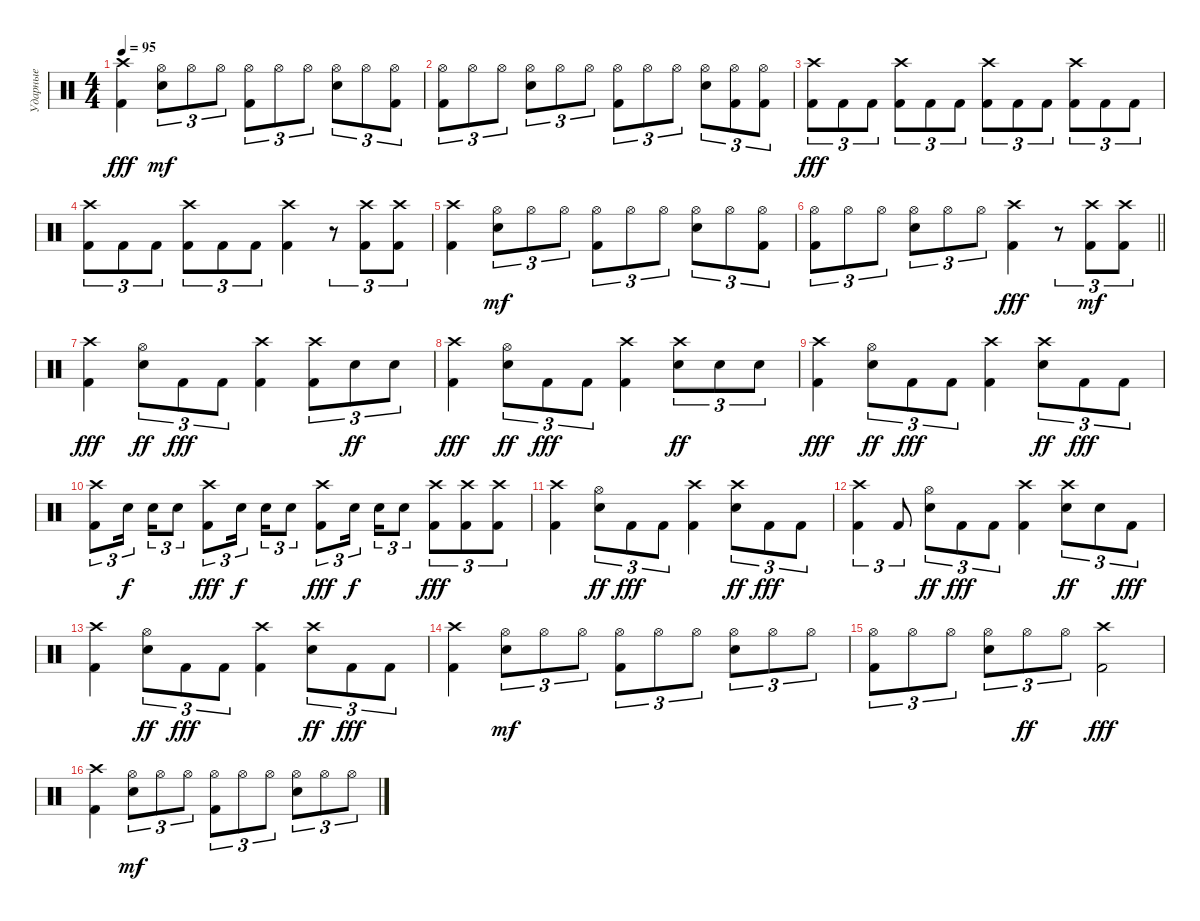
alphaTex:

\track ("Ударные" "Ударные") {instrument percussion}
\staff
\articulation defaults
\ts (4 4)
\tempo 95
\clef neutral
\ks c
("Kick (hit) 2" "Crash high (hit)").4{dy fff} ("Snare (hit) 2" "Hi-Hat (open)").8{tu (3 2) dy mf} "Hi-Hat (open)".8{tu (3 2)} "Hi-Hat (open)".8{tu (3 2)} ("Kick (hit) 2" "Hi-Hat (open)").8{tu (3 2)} "Hi-Hat (open)".8{tu (3 2)} "Hi-Hat (open)".8{tu (3 2)} ("Snare (hit) 2" "Hi-Hat (open)").8{tu (3 2)} "Hi-Hat (open)".8{tu (3 2)} ("Kick (hit) 2" "Hi-Hat (open)").8{tu (3 2)} |
("Kick (hit) 2" "Hi-Hat (open)").8{tu (3 2)} "Hi-Hat (open)".8{tu (3 2)} "Hi-Hat (open)".8{tu (3 2)} ("Snare (hit) 2" "Hi-Hat (open)").8{tu (3 2)} "Hi-Hat (open)".8{tu (3 2)} "Hi-Hat (open)".8{tu (3 2)} ("Kick (hit) 2" "Hi-Hat (open)").8{tu (3 2)} "Hi-Hat (open)".8{tu (3 2)} "Hi-Hat (open)".8{tu (3 2)} ("Snare (hit) 2" "Hi-Hat (open)").8{tu (3 2)} ("Kick (hit) 2" "Hi-Hat (open)").8{tu (3 2)} ("Kick (hit) 2" "Hi-Hat (open)").8{tu (3 2)} |
("Kick (hit) 2" "Crash high (hit)").8{tu (3 2) dy fff} "Kick (hit) 2".8{tu (3 2)} "Kick (hit) 2".8{tu (3 2)} ("Kick (hit) 2" "Crash high (hit)").8{tu (3 2)} "Kick (hit) 2".8{tu (3 2)} "Kick (hit) 2".8{tu (3 2)} ("Kick (hit) 2" "Crash high (hit)").8{tu (3 2)} "Kick (hit) 2".8{tu (3 2)} "Kick (hit) 2".8{tu (3 2)} ("Kick (hit) 2" "Crash high (hit)").8{tu (3 2)} "Kick (hit) 2".8{tu (3 2)} "Kick (hit) 2".8{tu (3 2)} |
("Kick (hit) 2" "Crash high (hit)").8{tu (3 2)} "Kick (hit) 2".8{tu (3 2)} "Kick (hit) 2".8{tu (3 2)} ("Kick (hit) 2" "Crash high (hit)").8{tu (3 2)} "Kick (hit) 2".8{tu (3 2)} "Kick (hit) 2".8{tu (3 2)} ("Kick (hit) 2" "Crash high (hit)").4 r.8{tu (3 2)} ("Kick (hit) 2" "Crash high (hit)").8{tu (3 2)} ("Kick (hit) 2" "Crash high (hit)").8{tu (3 2)} |
("Kick (hit) 2" "Crash high (hit)").4 ("Snare (hit) 2" "Hi-Hat (open)").8{tu (3 2) dy mf} "Hi-Hat (open)".8{tu (3 2)} "Hi-Hat (open)".8{tu (3 2)} ("Kick (hit) 2" "Hi-Hat (open)").8{tu (3 2)} "Hi-Hat (open)".8{tu (3 2)} "Hi-Hat (open)".8{tu (3 2)} ("Snare (hit) 2" "Hi-Hat (open)").8{tu (3 2)} "Hi-Hat (open)".8{tu (3 2)} ("Kick (hit) 2" "Hi-Hat (open)").8{tu (3 2)} |
\barLineRight lightlight
("Kick (hit) 2" "Hi-Hat (open)").8{tu (3 2)} "Hi-Hat (open)".8{tu (3 2)} "Hi-Hat (open)".8{tu (3 2)} ("Snare (hit) 2" "Hi-Hat (open)").8{tu (3 2)} "Hi-Hat (open)".8{tu (3 2)} "Hi-Hat (open)".8{tu (3 2)} ("Kick (hit) 2" "Crash high (hit)").4{dy fff} r.8{tu (3 2)} ("Kick (hit) 2" "Crash high (hit)").8{tu (3 2) dy mf} ("Kick (hit) 2" "Crash high (hit)").8{tu (3 2)} |
("Kick (hit) 2" "Crash high (hit)").4{dy fff} ("Snare (hit) 2" "Hi-Hat (open)").8{tu (3 2) dy ff} "Kick (hit) 2".8{tu (3 2) dy fff} "Kick (hit) 2".8{tu (3 2)} ("Kick (hit) 2" "Crash high (hit)").4 ("Kick (hit) 2" "Crash high (hit)").8{tu (3 2)} "Electric Snare (hit)".8{tu (3 2) dy ff} "Electric Snare (hit)".8{tu (3 2)} |
("Kick (hit) 2" "Crash high (hit)").4{dy fff} ("Snare (hit) 2" "Hi-Hat (open)").8{tu (3 2) dy ff} "Kick (hit) 2".8{tu (3 2) dy fff} "Kick (hit) 2".8{tu (3 2)} ("Kick (hit) 2" "Crash high (hit)").4 ("Snare (hit) 2" "Crash high (hit)").8{tu (3 2) dy ff} "Electric Snare (hit)".8{tu (3 2)} "Electric Snare (hit)".8{tu (3 2)} |
("Kick (hit) 2" "Crash high (hit)").4{dy fff} ("Snare (hit) 2" "Hi-Hat (open)").8{tu (3 2) dy ff} "Kick (hit) 2".8{tu (3 2) dy fff} "Kick (hit) 2".8{tu (3 2)} ("Kick (hit) 2" "Crash high (hit)").4 ("Snare (hit) 2" "Crash high (hit)").8{tu (3 2) dy ff} "Kick (hit) 2".8{tu (3 2) dy fff} "Kick (hit) 2".8{tu (3 2)} |
("Kick (hit) 2" "Crash high (hit)").8{tu (3 2)} "Snare (hit) 2".16{tu (3 2) dy f beam splitsecondary} "Snare (hit) 2".16{tu (3 2)} "Snare (hit) 2".8{tu (3 2)} ("Kick (hit) 2" "Crash high (hit)").8{tu (3 2) dy fff} "Snare (hit) 2".16{tu (3 2) dy f beam splitsecondary} "Snare (hit) 2".16{tu (3 2)} "Snare (hit) 2".8{tu (3 2)} ("Kick (hit) 2" "Crash high (hit)").8{tu (3 2) dy fff} "Snare (hit) 2".16{tu (3 2) dy f beam splitsecondary} "Snare (hit) 2".16{tu (3 2)} "Snare (hit) 2".8{tu (3 2)} ("Kick (hit) 2" "Crash high (hit)").8{tu (3 2) dy fff} ("Kick (hit) 2" "Crash high (hit)").8{tu (3 2)} ("Kick (hit) 2" "Crash high (hit)").8{tu (3 2)} |
("Kick (hit) 2" "Crash high (hit)").4 ("Snare (hit) 2" "Hi-Hat (open)").8{tu (3 2) dy ff} "Kick (hit) 2".8{tu (3 2) dy fff} "Kick (hit) 2".8{tu (3 2)} ("Kick (hit) 2" "Crash high (hit)").4 ("Snare (hit) 2" "Crash high (hit)").8{tu (3 2) dy ff} "Kick (hit) 2".8{tu (3 2) dy fff} "Kick (hit) 2".8{tu (3 2)} |
("Kick (hit) 2" "Crash high (hit)").4{tu (3 2)} "Kick (hit) 2".8{tu (3 2)} ("Snare (hit) 2" "Hi-Hat (open)").8{tu (3 2) dy ff} "Kick (hit) 2".8{tu (3 2) dy fff} "Kick (hit) 2".8{tu (3 2)} ("Kick (hit) 2" "Crash high (hit)").4 ("Snare (hit) 2" "Crash high (hit)").8{tu (3 2) dy ff} "Snare (hit) 2".8{tu (3 2)} "Kick (hit) 2".8{tu (3 2) dy fff} |
("Kick (hit) 2" "Crash high (hit)").4 ("Snare (hit) 2" "Hi-Hat (open)").8{tu (3 2) dy ff} "Kick (hit) 2".8{tu (3 2) dy fff} "Kick (hit) 2".8{tu (3 2)} ("Kick (hit) 2" "Crash high (hit)").4 ("Snare (hit) 2" "Crash high (hit)").8{tu (3 2) dy ff} "Kick (hit) 2".8{tu (3 2) dy fff} "Kick (hit) 2".8{tu (3 2)} |
("Kick (hit) 2" "Crash high (hit)").4 ("Snare (hit) 2" "Hi-Hat (open)").8{tu (3 2) dy mf} "Hi-Hat (open)".8{tu (3 2)} "Hi-Hat (open)".8{tu (3 2)} ("Kick (hit) 2" "Hi-Hat (open)").8{tu (3 2)} "Hi-Hat (open)".8{tu (3 2)} "Hi-Hat (open)".8{tu (3 2)} ("Snare (hit) 2" "Hi-Hat (open)").8{tu (3 2)} "Hi-Hat (open)".8{tu (3 2)} "Hi-Hat (open)".8{tu (3 2)} |
("Kick (hit) 2" "Hi-Hat (open)").8{tu (3 2)} "Hi-Hat (open)".8{tu (3 2)} "Hi-Hat (open)".8{tu (3 2)} ("Snare (hit) 2" "Hi-Hat (open)").8{tu (3 2)} "Hi-Hat (open)".8{tu (3 2) dy ff} "Hi-Hat (open)".8{tu (3 2)} ("Kick (hit) 2" "Crash high (hit)").2{dy fff} |
("Kick (hit) 2" "Crash high (hit)").4 ("Snare (hit) 2" "Hi-Hat (open)").8{tu (3 2) dy mf} "Hi-Hat (open)".8{tu (3 2)} "Hi-Hat (open)".8{tu (3 2)} ("Kick (hit) 2" "Hi-Hat (open)").8{tu (3 2)} "Hi-Hat (open)".8{tu (3 2)} "Hi-Hat (open)".8{tu (3 2)} ("Snare (hit) 2" "Hi-Hat (open)").8{tu (3 2)} "Hi-Hat (open)".8{tu (3 2)} "Hi-Hat (open)".8{tu (3 2)}
